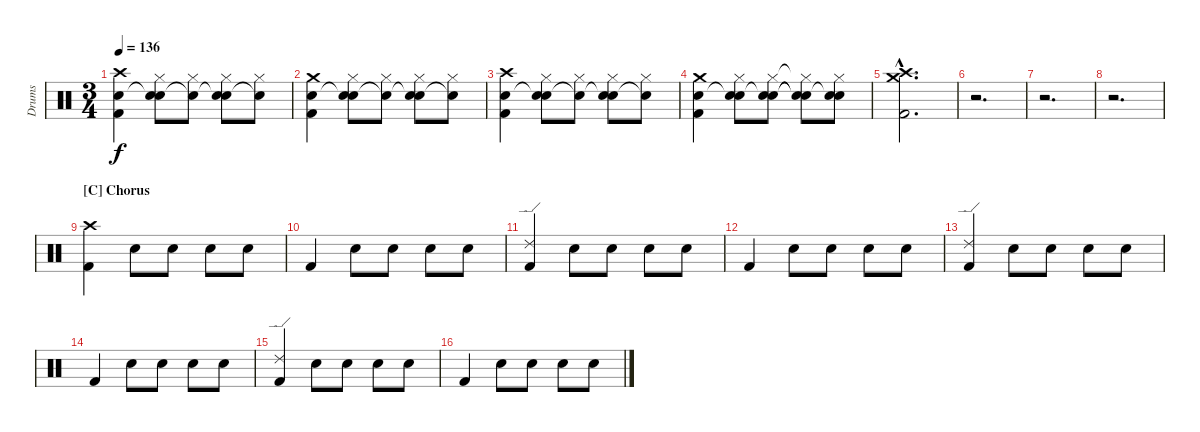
\track ("Drums" "Drums") {instrument percussion}
\staff {score}
\articulation defaults
\ts (3 4)
\tempo 136
\clef neutral
\ks aminor
("Crash high (hit)" "Snare (hit) 2" "Kick (hit) 2").4{dy f} ("Hi-Hat (closed)" "Snare (hit)"{t} "Snare (hit) 2").8 ("Hi-Hat (closed)" "Snare (hit)"{t}).8 ("Hi-Hat (closed)" "Snare (hit)"{t} "Snare (hit) 2").8 ("Hi-Hat (closed)" "Snare (hit)"{t}).8 |
("Crash medium (hit)" "Snare (hit) 2" "Kick (hit) 2").4 ("Hi-Hat (closed)" "Snare (hit)"{t} "Snare (hit) 2").8 ("Hi-Hat (closed)" "Snare (hit)"{t}).8 ("Hi-Hat (closed)" "Snare (hit)"{t} "Snare (hit) 2").8 ("Hi-Hat (closed)" "Snare (hit)"{t}).8 |
("Crash high (hit)" "Snare (hit) 2" "Kick (hit) 2").4 ("Hi-Hat (closed)" "Snare (hit)"{t} "Snare (hit) 2").8 ("Hi-Hat (closed)" "Snare (hit)"{t}).8 ("Hi-Hat (closed)" "Snare (hit)"{t} "Snare (hit) 2").8 ("Hi-Hat (closed)" "Snare (hit)"{t}).8 |
("Crash medium (hit)" "Snare (hit) 2" "Kick (hit) 2").4 ("Hi-Hat (closed)" "Snare (hit)"{t} "Snare (hit) 2").8 ("Hi-Hat (closed)" "Snare (hit)"{t} "Snare (hit) 2").8 ("Hi-Hat (closed)"{t} "Snare (hit)"{t} "Snare (hit) 2"{t}).8 ("Hi-Hat (closed)" "Snare (hit)"{t} "Snare (hit) 2").8 |
("Crash medium (hit)"{hac} "Crash high (hit)"{hac} "Kick (hit) 2"{hac}).2{d} |
r.2{d} |
r.2{d} |
r.2{d} |
\section ("" "[C] Chorus")
("Crash high (hit)" "Kick (hit) 2").4 "Snare (hit) 2".8 "Snare (hit) 2".8 "Snare (hit) 2".8 "Snare (hit) 2".8 |
"Kick (hit) 2".4 "Snare (hit) 2".8 "Snare (hit) 2".8 "Snare (hit) 2".8 "Snare (hit) 2".8 |
("Ride (edge) 2" "Kick (hit) 2").4 "Snare (hit) 2".8 "Snare (hit) 2".8 "Snare (hit) 2".8 "Snare (hit) 2".8 |
"Kick (hit) 2".4 "Snare (hit) 2".8 "Snare (hit) 2".8 "Snare (hit) 2".8 "Snare (hit) 2".8 |
("Ride (edge) 2" "Kick (hit) 2").4 "Snare (hit) 2".8 "Snare (hit) 2".8 "Snare (hit) 2".8 "Snare (hit) 2".8 |
"Kick (hit) 2".4 "Snare (hit) 2".8 "Snare (hit) 2".8 "Snare (hit) 2".8 "Snare (hit) 2".8 |
("Ride (edge) 2" "Kick (hit) 2").4 "Snare (hit) 2".8 "Snare (hit) 2".8 "Snare (hit) 2".8 "Snare (hit) 2".8 |
"Kick (hit) 2".4 "Snare (hit) 2".8 "Snare (hit) 2".8 "Snare (hit) 2".8 "Snare (hit) 2".8
